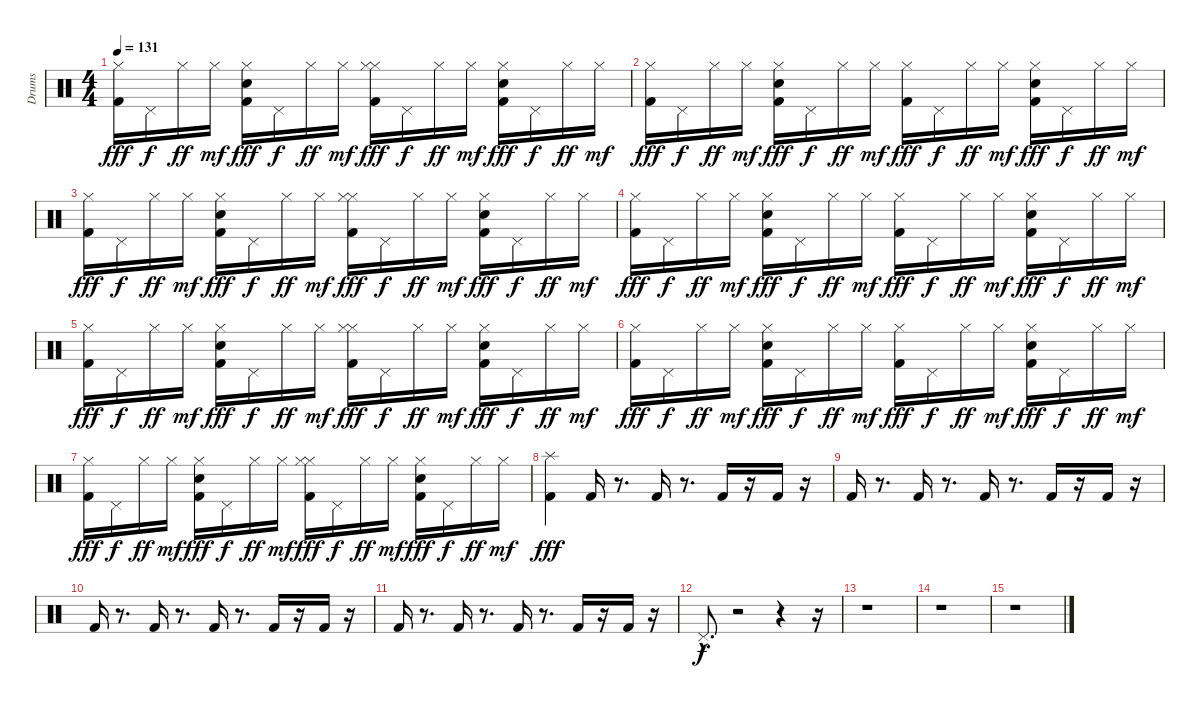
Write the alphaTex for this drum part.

\track ("Drums" "Drums") {instrument percussion}
\staff {score}
\articulation defaults
\ts (4 4)
\tempo 131
\clef neutral
\ks c
("Kick (hit) 2" "Hi-Hat (closed)").16{dy fff} "Pedal Hi-Hat (hit)".16{dy f} "Hi-Hat (closed)".16{dy ff} "Hi-Hat (closed)".16{dy mf} ("Kick (hit) 2" "Hand Clap (hit)" "Hi-Hat (closed)").16{dy fff} "Pedal Hi-Hat (hit)".16{dy f} "Hi-Hat (closed)".16{dy ff} "Hi-Hat (closed)".16{dy mf} ("Kick (hit) 2" "Hi-Hat (closed)" "Hi-Hat (closed)").16{dy fff} "Pedal Hi-Hat (hit)".16{dy f} "Hi-Hat (closed)".16{dy ff} "Hi-Hat (closed)".16{dy mf} ("Kick (hit) 2" "Hand Clap (hit)" "Hi-Hat (closed)").16{dy fff} "Pedal Hi-Hat (hit)".16{dy f} "Hi-Hat (closed)".16{dy ff} "Hi-Hat (closed)".16{dy mf} |
("Kick (hit) 2" "Hi-Hat (closed)").16{dy fff} "Pedal Hi-Hat (hit)".16{dy f} "Hi-Hat (closed)".16{dy ff} "Hi-Hat (closed)".16{dy mf} ("Kick (hit) 2" "Hand Clap (hit)" "Hi-Hat (closed)").16{dy fff} "Pedal Hi-Hat (hit)".16{dy f} "Hi-Hat (closed)".16{dy ff} "Hi-Hat (closed)".16{dy mf} ("Kick (hit) 2" "Hi-Hat (closed)").16{dy fff} "Pedal Hi-Hat (hit)".16{dy f} "Hi-Hat (closed)".16{dy ff} "Hi-Hat (closed)".16{dy mf} ("Kick (hit) 2" "Hand Clap (hit)" "Hi-Hat (closed)").16{dy fff} "Pedal Hi-Hat (hit)".16{dy f} "Hi-Hat (closed)".16{dy ff} "Hi-Hat (closed)".16{dy mf} |
("Kick (hit) 2" "Hi-Hat (closed)").16{dy fff} "Pedal Hi-Hat (hit)".16{dy f} "Hi-Hat (closed)".16{dy ff} "Hi-Hat (closed)".16{dy mf} ("Kick (hit) 2" "Hand Clap (hit)" "Hi-Hat (closed)").16{dy fff} "Pedal Hi-Hat (hit)".16{dy f} "Hi-Hat (closed)".16{dy ff} "Hi-Hat (closed)".16{dy mf} ("Kick (hit) 2" "Hi-Hat (closed)" "Hi-Hat (closed)").16{dy fff} "Pedal Hi-Hat (hit)".16{dy f} "Hi-Hat (closed)".16{dy ff} "Hi-Hat (closed)".16{dy mf} ("Kick (hit) 2" "Hand Clap (hit)" "Hi-Hat (closed)").16{dy fff} "Pedal Hi-Hat (hit)".16{dy f} "Hi-Hat (closed)".16{dy ff} "Hi-Hat (closed)".16{dy mf} |
("Kick (hit) 2" "Hi-Hat (closed)").16{dy fff} "Pedal Hi-Hat (hit)".16{dy f} "Hi-Hat (closed)".16{dy ff} "Hi-Hat (closed)".16{dy mf} ("Kick (hit) 2" "Hand Clap (hit)" "Hi-Hat (closed)").16{dy fff} "Pedal Hi-Hat (hit)".16{dy f} "Hi-Hat (closed)".16{dy ff} "Hi-Hat (closed)".16{dy mf} ("Kick (hit) 2" "Hi-Hat (closed)").16{dy fff} "Pedal Hi-Hat (hit)".16{dy f} "Hi-Hat (closed)".16{dy ff} "Hi-Hat (closed)".16{dy mf} ("Kick (hit) 2" "Hand Clap (hit)" "Hi-Hat (closed)").16{dy fff} "Pedal Hi-Hat (hit)".16{dy f} "Hi-Hat (closed)".16{dy ff} "Hi-Hat (closed)".16{dy mf} |
("Kick (hit) 2" "Hi-Hat (closed)").16{dy fff} "Pedal Hi-Hat (hit)".16{dy f} "Hi-Hat (closed)".16{dy ff} "Hi-Hat (closed)".16{dy mf} ("Kick (hit) 2" "Hand Clap (hit)" "Hi-Hat (closed)").16{dy fff} "Pedal Hi-Hat (hit)".16{dy f} "Hi-Hat (closed)".16{dy ff} "Hi-Hat (closed)".16{dy mf} ("Kick (hit) 2" "Hi-Hat (closed)" "Hi-Hat (closed)").16{dy fff} "Pedal Hi-Hat (hit)".16{dy f} "Hi-Hat (closed)".16{dy ff} "Hi-Hat (closed)".16{dy mf} ("Kick (hit) 2" "Hand Clap (hit)" "Hi-Hat (closed)").16{dy fff} "Pedal Hi-Hat (hit)".16{dy f} "Hi-Hat (closed)".16{dy ff} "Hi-Hat (closed)".16{dy mf} |
("Kick (hit) 2" "Hi-Hat (closed)").16{dy fff} "Pedal Hi-Hat (hit)".16{dy f} "Hi-Hat (closed)".16{dy ff} "Hi-Hat (closed)".16{dy mf} ("Kick (hit) 2" "Hand Clap (hit)" "Hi-Hat (closed)").16{dy fff} "Pedal Hi-Hat (hit)".16{dy f} "Hi-Hat (closed)".16{dy ff} "Hi-Hat (closed)".16{dy mf} ("Kick (hit) 2" "Hi-Hat (closed)").16{dy fff} "Pedal Hi-Hat (hit)".16{dy f} "Hi-Hat (closed)".16{dy ff} "Hi-Hat (closed)".16{dy mf} ("Kick (hit) 2" "Hand Clap (hit)" "Hi-Hat (closed)").16{dy fff} "Pedal Hi-Hat (hit)".16{dy f} "Hi-Hat (closed)".16{dy ff} "Hi-Hat (closed)".16{dy mf} |
("Kick (hit) 2" "Hi-Hat (closed)").16{dy fff} "Pedal Hi-Hat (hit)".16{dy f} "Hi-Hat (closed)".16{dy ff} "Hi-Hat (closed)".16{dy mf} ("Kick (hit) 2" "Hand Clap (hit)" "Hi-Hat (closed)").16{dy fff} "Pedal Hi-Hat (hit)".16{dy f} "Hi-Hat (closed)".16{dy ff} "Hi-Hat (closed)".16{dy mf} ("Kick (hit) 2" "Hi-Hat (closed)" "Hi-Hat (closed)").16{dy fff} "Pedal Hi-Hat (hit)".16{dy f} "Hi-Hat (closed)".16{dy ff} "Hi-Hat (closed)".16{dy mf} ("Kick (hit) 2" "Hand Clap (hit)" "Hi-Hat (closed)").16{dy fff} "Pedal Hi-Hat (hit)".16{dy f} "Hi-Hat (closed)".16{dy ff} "Hi-Hat (closed)".16{dy mf} |
("Kick (hit) 2" "Splash (hit)").4{dy fff} "Kick (hit) 2".16 r.8{d} "Kick (hit) 2".16 r.8{d} "Kick (hit) 2".16 r.16 "Kick (hit) 2".16 r.16 |
"Kick (hit) 2".16 r.8{d} "Kick (hit) 2".16 r.8{d} "Kick (hit) 2".16 r.8{d} "Kick (hit) 2".16 r.16 "Kick (hit) 2".16 r.16 |
"Kick (hit) 2".16 r.8{d} "Kick (hit) 2".16 r.8{d} "Kick (hit) 2".16 r.8{d} "Kick (hit) 2".16 r.16 "Kick (hit) 2".16 r.16 |
"Kick (hit) 2".16 r.8{d} "Kick (hit) 2".16 r.8{d} "Kick (hit) 2".16 r.8{d} "Kick (hit) 2".16 r.16 "Kick (hit) 2".16 r.16 |
"Pedal Hi-Hat (hit)"{hac}.8{d dy f} r.2 r.4 r.16 |
r.1 |
r.1 |
r.1
